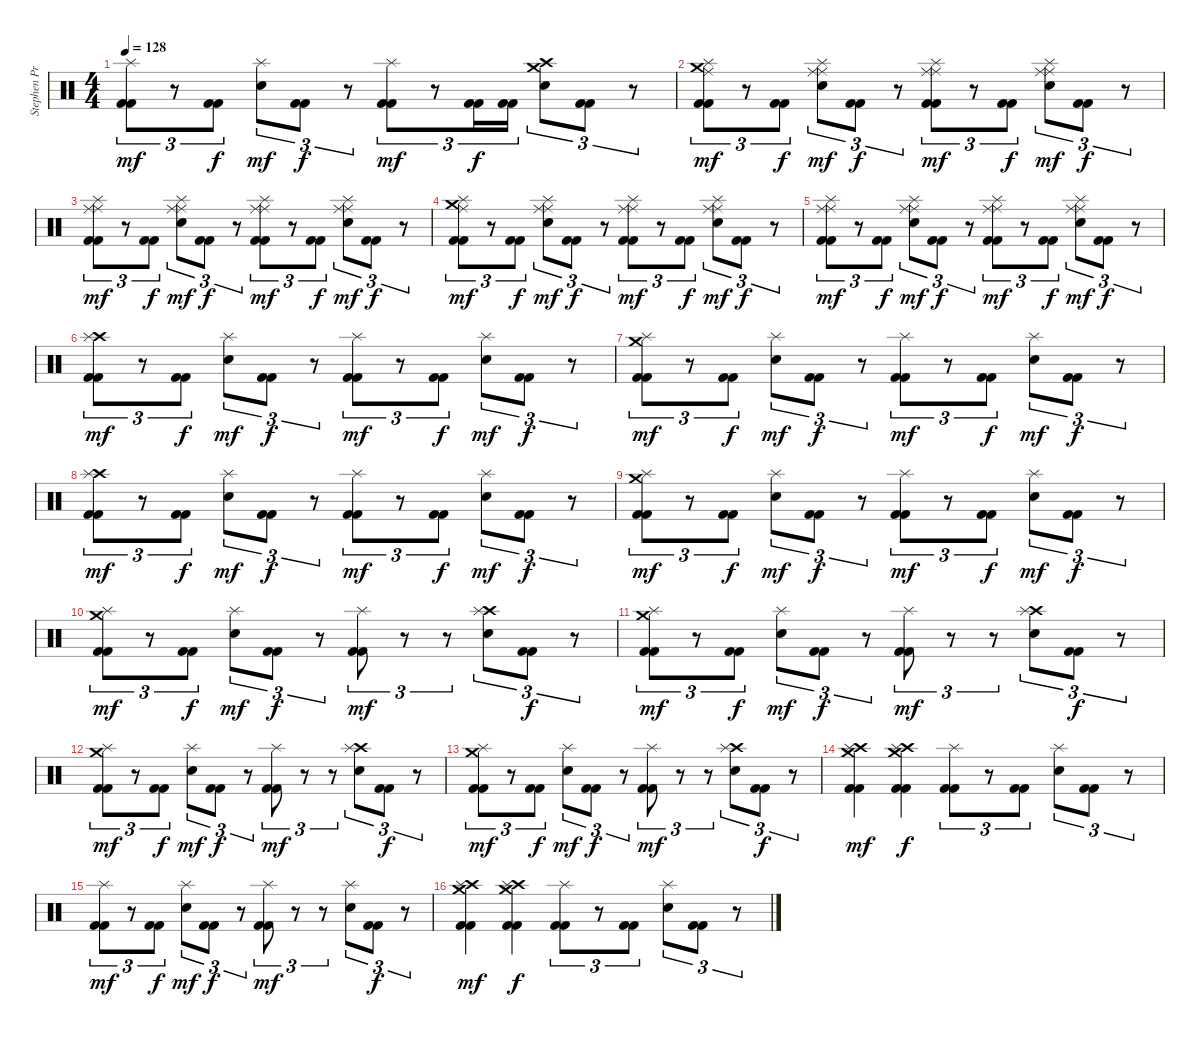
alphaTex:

\track ("Stephen Priestly  (Drums)" "Stephen Pr") {instrument percussion}
\staff {score}
\articulation defaults
\ts (4 4)
\tempo 128
\clef neutral
\ks c
("Splash (hit)" "Kick (hit) 2" "Kick (hit) 2").8{tu (3 2) dy mf} r.8{tu (3 2)} ("Kick (hit) 2" "Kick (hit) 2").8{tu (3 2) dy f} ("Splash (hit)" "Electric Snare (hit)").8{tu (3 2) dy mf} ("Kick (hit) 2" "Kick (hit) 2").8{tu (3 2) dy f} r.8{tu (3 2)} ("Splash (hit)" "Kick (hit) 2" "Kick (hit) 2").8{tu (3 2) dy mf} r.8{tu (3 2)} ("Kick (hit) 2" "Kick (hit) 2").16{tu (3 2) dy f} ("Kick (hit) 2" "Kick (hit) 2").16{tu (3 2)} ("Crash medium (hit)" "Crash high (hit)" "Electric Snare (hit)").8{tu (3 2)} ("Kick (hit) 2" "Kick (hit) 2").8{tu (3 2)} r.8{tu (3 2)} |
("Ride (middle)" "Crash medium (hit)" "Splash (hit)" "Kick (hit) 2" "Kick (hit) 2").8{tu (3 2) dy mf} r.8{tu (3 2)} ("Kick (hit) 2" "Kick (hit) 2").8{tu (3 2) dy f} ("Ride (middle)" "Ride (middle)" "Splash (hit)" "Electric Snare (hit)").8{tu (3 2) dy mf} ("Kick (hit) 2" "Kick (hit) 2").8{tu (3 2) dy f} r.8{tu (3 2)} ("Ride (middle)" "Ride (middle)" "Splash (hit)" "Kick (hit) 2" "Kick (hit) 2").8{tu (3 2) dy mf} r.8{tu (3 2)} ("Kick (hit) 2" "Kick (hit) 2").8{tu (3 2) dy f} ("Ride (middle)" "Ride (middle)" "Splash (hit)" "Electric Snare (hit)").8{tu (3 2) dy mf} ("Kick (hit) 2" "Kick (hit) 2").8{tu (3 2) dy f} r.8{tu (3 2)} |
("Ride (middle)" "Ride (middle)" "Splash (hit)" "Kick (hit) 2" "Kick (hit) 2").8{tu (3 2) dy mf} r.8{tu (3 2)} ("Kick (hit) 2" "Kick (hit) 2").8{tu (3 2) dy f} ("Ride (middle)" "Ride (middle)" "Splash (hit)" "Electric Snare (hit)").8{tu (3 2) dy mf} ("Kick (hit) 2" "Kick (hit) 2").8{tu (3 2) dy f} r.8{tu (3 2)} ("Ride (middle)" "Ride (middle)" "Splash (hit)" "Kick (hit) 2" "Kick (hit) 2").8{tu (3 2) dy mf} r.8{tu (3 2)} ("Kick (hit) 2" "Kick (hit) 2").8{tu (3 2) dy f} ("Ride (middle)" "Ride (middle)" "Splash (hit)" "Electric Snare (hit)").8{tu (3 2) dy mf} ("Kick (hit) 2" "Kick (hit) 2").8{tu (3 2) dy f} r.8{tu (3 2)} |
("Ride (middle)" "Crash medium (hit)" "Splash (hit)" "Kick (hit) 2" "Kick (hit) 2").8{tu (3 2) dy mf} r.8{tu (3 2)} ("Kick (hit) 2" "Kick (hit) 2").8{tu (3 2) dy f} ("Ride (middle)" "Ride (middle)" "Splash (hit)" "Electric Snare (hit)").8{tu (3 2) dy mf} ("Kick (hit) 2" "Kick (hit) 2").8{tu (3 2) dy f} r.8{tu (3 2)} ("Ride (middle)" "Ride (middle)" "Splash (hit)" "Kick (hit) 2" "Kick (hit) 2").8{tu (3 2) dy mf} r.8{tu (3 2)} ("Kick (hit) 2" "Kick (hit) 2").8{tu (3 2) dy f} ("Ride (middle)" "Ride (middle)" "Splash (hit)" "Electric Snare (hit)").8{tu (3 2) dy mf} ("Kick (hit) 2" "Kick (hit) 2").8{tu (3 2) dy f} r.8{tu (3 2)} |
("Ride (middle)" "Ride (middle)" "Splash (hit)" "Kick (hit) 2" "Kick (hit) 2").8{tu (3 2) dy mf} r.8{tu (3 2)} ("Kick (hit) 2" "Kick (hit) 2").8{tu (3 2) dy f} ("Ride (middle)" "Ride (middle)" "Splash (hit)" "Electric Snare (hit)").8{tu (3 2) dy mf} ("Kick (hit) 2" "Kick (hit) 2").8{tu (3 2) dy f} r.8{tu (3 2)} ("Ride (middle)" "Ride (middle)" "Splash (hit)" "Kick (hit) 2" "Kick (hit) 2").8{tu (3 2) dy mf} r.8{tu (3 2)} ("Kick (hit) 2" "Kick (hit) 2").8{tu (3 2) dy f} ("Ride (middle)" "Ride (middle)" "Splash (hit)" "Electric Snare (hit)").8{tu (3 2) dy mf} ("Kick (hit) 2" "Kick (hit) 2").8{tu (3 2) dy f} r.8{tu (3 2)} |
("Crash high (hit)" "Splash (hit)" "Kick (hit) 2" "Kick (hit) 2").8{tu (3 2) dy mf} r.8{tu (3 2)} ("Kick (hit) 2" "Kick (hit) 2").8{tu (3 2) dy f} ("Splash (hit)" "Electric Snare (hit)").8{tu (3 2) dy mf} ("Kick (hit) 2" "Kick (hit) 2").8{tu (3 2) dy f} r.8{tu (3 2)} ("Splash (hit)" "Kick (hit) 2" "Kick (hit) 2").8{tu (3 2) dy mf} r.8{tu (3 2)} ("Kick (hit) 2" "Kick (hit) 2").8{tu (3 2) dy f} ("Splash (hit)" "Electric Snare (hit)").8{tu (3 2) dy mf} ("Kick (hit) 2" "Kick (hit) 2").8{tu (3 2) dy f} r.8{tu (3 2)} |
("Crash medium (hit)" "Splash (hit)" "Kick (hit) 2" "Kick (hit) 2").8{tu (3 2) dy mf} r.8{tu (3 2)} ("Kick (hit) 2" "Kick (hit) 2").8{tu (3 2) dy f} ("Splash (hit)" "Electric Snare (hit)").8{tu (3 2) dy mf} ("Kick (hit) 2" "Kick (hit) 2").8{tu (3 2) dy f} r.8{tu (3 2)} ("Splash (hit)" "Kick (hit) 2" "Kick (hit) 2").8{tu (3 2) dy mf} r.8{tu (3 2)} ("Kick (hit) 2" "Kick (hit) 2").8{tu (3 2) dy f} ("Splash (hit)" "Electric Snare (hit)").8{tu (3 2) dy mf} ("Kick (hit) 2" "Kick (hit) 2").8{tu (3 2) dy f} r.8{tu (3 2)} |
("Crash high (hit)" "Splash (hit)" "Kick (hit) 2" "Kick (hit) 2").8{tu (3 2) dy mf} r.8{tu (3 2)} ("Kick (hit) 2" "Kick (hit) 2").8{tu (3 2) dy f} ("Splash (hit)" "Electric Snare (hit)").8{tu (3 2) dy mf} ("Kick (hit) 2" "Kick (hit) 2").8{tu (3 2) dy f} r.8{tu (3 2)} ("Splash (hit)" "Kick (hit) 2" "Kick (hit) 2").8{tu (3 2) dy mf} r.8{tu (3 2)} ("Kick (hit) 2" "Kick (hit) 2").8{tu (3 2) dy f} ("Splash (hit)" "Electric Snare (hit)").8{tu (3 2) dy mf} ("Kick (hit) 2" "Kick (hit) 2").8{tu (3 2) dy f} r.8{tu (3 2)} |
("Crash medium (hit)" "Splash (hit)" "Kick (hit) 2" "Kick (hit) 2").8{tu (3 2) dy mf} r.8{tu (3 2)} ("Kick (hit) 2" "Kick (hit) 2").8{tu (3 2) dy f} ("Splash (hit)" "Electric Snare (hit)").8{tu (3 2) dy mf} ("Kick (hit) 2" "Kick (hit) 2").8{tu (3 2) dy f} r.8{tu (3 2)} ("Splash (hit)" "Kick (hit) 2" "Kick (hit) 2").8{tu (3 2) dy mf} r.8{tu (3 2)} ("Kick (hit) 2" "Kick (hit) 2").8{tu (3 2) dy f} ("Splash (hit)" "Electric Snare (hit)").8{tu (3 2) dy mf} ("Kick (hit) 2" "Kick (hit) 2").8{tu (3 2) dy f} r.8{tu (3 2)} |
("Crash medium (hit)" "Splash (hit)" "Kick (hit) 2" "Kick (hit) 2").8{tu (3 2) dy mf} r.8{tu (3 2)} ("Kick (hit) 2" "Kick (hit) 2").8{tu (3 2) dy f} ("Splash (hit)" "Electric Snare (hit)").8{tu (3 2) dy mf} ("Kick (hit) 2" "Kick (hit) 2").8{tu (3 2) dy f} r.8{tu (3 2)} ("Splash (hit)" "Kick (hit) 2" "Kick (hit) 2").8{tu (3 2) dy mf} r.8{tu (3 2)} r.8{tu (3 2)} ("Crash high (hit)" "Splash (hit)" "Electric Snare (hit)").8{tu (3 2)} ("Kick (hit) 2" "Kick (hit) 2").8{tu (3 2) dy f} r.8{tu (3 2)} |
("Crash medium (hit)" "Splash (hit)" "Kick (hit) 2" "Kick (hit) 2").8{tu (3 2) dy mf} r.8{tu (3 2)} ("Kick (hit) 2" "Kick (hit) 2").8{tu (3 2) dy f} ("Splash (hit)" "Electric Snare (hit)").8{tu (3 2) dy mf} ("Kick (hit) 2" "Kick (hit) 2").8{tu (3 2) dy f} r.8{tu (3 2)} ("Splash (hit)" "Kick (hit) 2" "Kick (hit) 2").8{tu (3 2) dy mf} r.8{tu (3 2)} r.8{tu (3 2)} ("Crash high (hit)" "Splash (hit)" "Electric Snare (hit)").8{tu (3 2)} ("Kick (hit) 2" "Kick (hit) 2").8{tu (3 2) dy f} r.8{tu (3 2)} |
("Crash medium (hit)" "Splash (hit)" "Kick (hit) 2" "Kick (hit) 2").8{tu (3 2) dy mf} r.8{tu (3 2)} ("Kick (hit) 2" "Kick (hit) 2").8{tu (3 2) dy f} ("Splash (hit)" "Electric Snare (hit)").8{tu (3 2) dy mf} ("Kick (hit) 2" "Kick (hit) 2").8{tu (3 2) dy f} r.8{tu (3 2)} ("Splash (hit)" "Kick (hit) 2" "Kick (hit) 2").8{tu (3 2) dy mf} r.8{tu (3 2)} r.8{tu (3 2)} ("Crash high (hit)" "Splash (hit)" "Electric Snare (hit)").8{tu (3 2)} ("Kick (hit) 2" "Kick (hit) 2").8{tu (3 2) dy f} r.8{tu (3 2)} |
("Crash medium (hit)" "Splash (hit)" "Kick (hit) 2" "Kick (hit) 2").8{tu (3 2) dy mf} r.8{tu (3 2)} ("Kick (hit) 2" "Kick (hit) 2").8{tu (3 2) dy f} ("Splash (hit)" "Electric Snare (hit)").8{tu (3 2) dy mf} ("Kick (hit) 2" "Kick (hit) 2").8{tu (3 2) dy f} r.8{tu (3 2)} ("Splash (hit)" "Kick (hit) 2" "Kick (hit) 2").8{tu (3 2) dy mf} r.8{tu (3 2)} r.8{tu (3 2)} ("Crash high (hit)" "Splash (hit)" "Electric Snare (hit)").8{tu (3 2)} ("Kick (hit) 2" "Kick (hit) 2").8{tu (3 2) dy f} r.8{tu (3 2)} |
("Crash medium (hit)" "Crash high (hit)" "Splash (hit)" "Kick (hit) 2" "Kick (hit) 2").4{dy mf} ("Crash medium (hit)" "Crash high (hit)" "Splash (hit)" "Kick (hit) 2" "Kick (hit) 2").4{dy f} ("Splash (hit)" "Kick (hit) 2" "Kick (hit) 2").8{tu (3 2)} r.8{tu (3 2)} ("Kick (hit) 2" "Kick (hit) 2").8{tu (3 2)} ("Splash (hit)" "Electric Snare (hit)").8{tu (3 2)} ("Kick (hit) 2" "Kick (hit) 2").8{tu (3 2)} r.8{tu (3 2)} |
("Splash (hit)" "Kick (hit) 2" "Kick (hit) 2").8{tu (3 2) dy mf} r.8{tu (3 2)} ("Kick (hit) 2" "Kick (hit) 2").8{tu (3 2) dy f} ("Splash (hit)" "Electric Snare (hit)").8{tu (3 2) dy mf} ("Kick (hit) 2" "Kick (hit) 2").8{tu (3 2) dy f} r.8{tu (3 2)} ("Splash (hit)" "Kick (hit) 2" "Kick (hit) 2").8{tu (3 2) dy mf} r.8{tu (3 2)} r.8{tu (3 2)} ("Splash (hit)" "Electric Snare (hit)").8{tu (3 2)} ("Kick (hit) 2" "Kick (hit) 2").8{tu (3 2) dy f} r.8{tu (3 2)} |
("Crash medium (hit)" "Crash high (hit)" "Splash (hit)" "Kick (hit) 2" "Kick (hit) 2").4{dy mf} ("Crash medium (hit)" "Crash high (hit)" "Splash (hit)" "Kick (hit) 2" "Kick (hit) 2").4{dy f} ("Splash (hit)" "Kick (hit) 2" "Kick (hit) 2").8{tu (3 2)} r.8{tu (3 2)} ("Kick (hit) 2" "Kick (hit) 2").8{tu (3 2)} ("Splash (hit)" "Electric Snare (hit)").8{tu (3 2)} ("Kick (hit) 2" "Kick (hit) 2").8{tu (3 2)} r.8{tu (3 2)}
